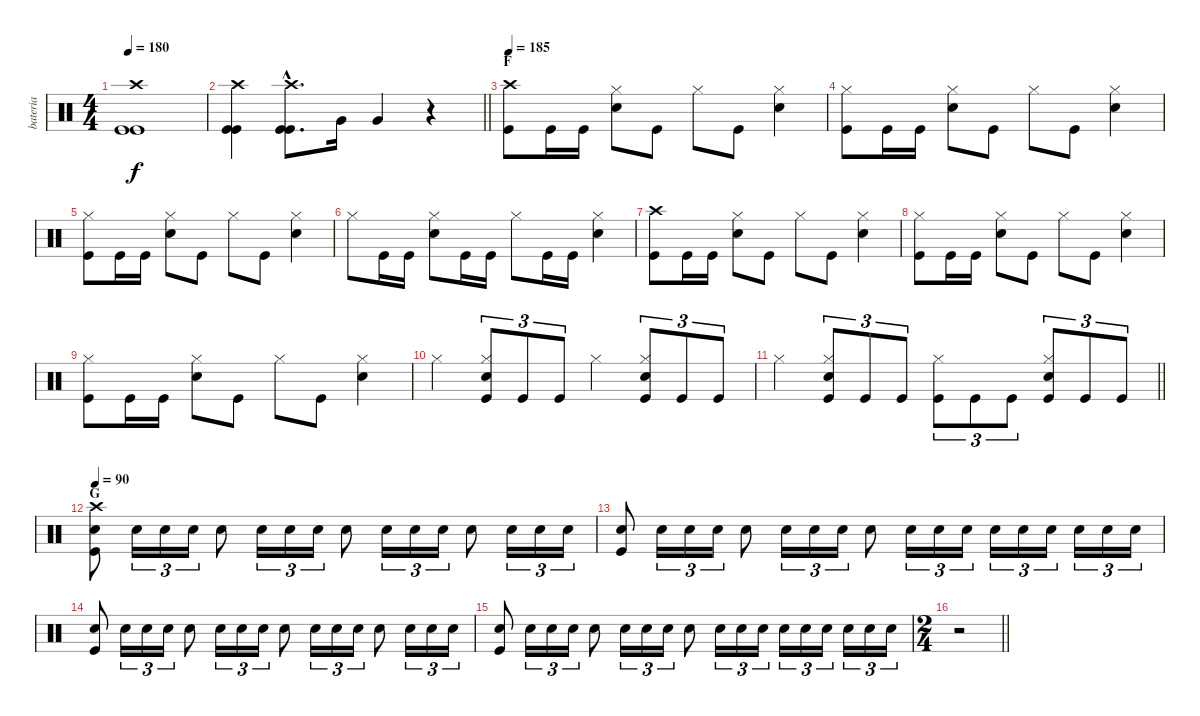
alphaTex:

\track ("bateria" "bateria") {instrument percussion}
\staff {score}
\articulation defaults
\ts (4 4)
\tempo 180
\clef neutral
\ks c
("Crash high (hit)" "Kick (hit)" "Kick (hit)").1{dy f} |
\barLineRight lightlight
("Crash high (hit)" "Kick (hit)" "Kick (hit)").4 ("Crash high (hit)"{hac} "Kick (hit)"{hac} "Kick (hit)"{hac}).8{d} "Very Low Tom (hit)".16 "Very Low Tom (hit)".4 r.4 |
\section ("" "F")
\tempo 185
("Crash high (hit)" "Kick (hit)").8 "Kick (hit)".16 "Kick (hit)".16 ("Hi-Hat (closed)" "Snare (hit) 2").8 "Kick (hit)".8 "Hi-Hat (closed)".8 "Kick (hit)".8 ("Hi-Hat (closed)" "Snare (hit) 2").4 |
("Hi-Hat (closed)" "Kick (hit)").8 "Kick (hit)".16 "Kick (hit)".16 ("Hi-Hat (closed)" "Snare (hit) 2").8 "Kick (hit)".8 "Hi-Hat (closed)".8 "Kick (hit)".8 ("Hi-Hat (closed)" "Snare (hit) 2").4 |
("Hi-Hat (closed)" "Kick (hit)").8 "Kick (hit)".16 "Kick (hit)".16 ("Hi-Hat (closed)" "Snare (hit) 2").8 "Kick (hit)".8 "Hi-Hat (closed)".8 "Kick (hit)".8 ("Hi-Hat (closed)" "Snare (hit) 2").4 |
"Hi-Hat (closed)".8 "Kick (hit)".16 "Kick (hit)".16 ("Hi-Hat (closed)" "Snare (hit) 2").8 "Kick (hit)".16 "Kick (hit)".16 "Hi-Hat (closed)".8 "Kick (hit)".16 "Kick (hit)".16 ("Hi-Hat (closed)" "Snare (hit) 2").4 |
("Crash high (hit)" "Kick (hit)").8 "Kick (hit)".16 "Kick (hit)".16 ("Hi-Hat (closed)" "Snare (hit) 2").8 "Kick (hit)".8 "Hi-Hat (closed)".8 "Kick (hit)".8 ("Hi-Hat (closed)" "Snare (hit) 2").4 |
("Hi-Hat (closed)" "Kick (hit)").8 "Kick (hit)".16 "Kick (hit)".16 ("Hi-Hat (closed)" "Snare (hit) 2").8 "Kick (hit)".8 "Hi-Hat (closed)".8 "Kick (hit)".8 ("Hi-Hat (closed)" "Snare (hit) 2").4 |
("Hi-Hat (closed)" "Kick (hit)").8 "Kick (hit)".16 "Kick (hit)".16 ("Hi-Hat (closed)" "Snare (hit) 2").8 "Kick (hit)".8 "Hi-Hat (closed)".8 "Kick (hit)".8 ("Hi-Hat (closed)" "Snare (hit) 2").4 |
"Hi-Hat (closed)".4 ("Hi-Hat (closed)" "Snare (hit) 2" "Kick (hit)").8{tu (3 2)} "Kick (hit)".8{tu (3 2)} "Kick (hit)".8{tu (3 2)} "Hi-Hat (closed)".4 ("Hi-Hat (closed)" "Snare (hit) 2" "Kick (hit)").8{tu (3 2)} "Kick (hit)".8{tu (3 2)} "Kick (hit)".8{tu (3 2)} |
\barLineRight lightlight "Hi-Hat (closed)".4
("Hi-Hat (closed)" "Snare (hit) 2" "Kick (hit)").8{tu (3 2)} "Kick (hit)".8{tu (3 2)} "Kick (hit)".8{tu (3 2)} ("Hi-Hat (closed)" "Kick (hit)").8{tu (3 2)} "Kick (hit)".8{tu (3 2)} "Kick (hit)".8{tu (3 2)} ("Hi-Hat (closed)" "Snare (hit) 2" "Kick (hit)").8{tu (3 2)} "Kick (hit)".8{tu (3 2)} "Kick (hit)".8{tu (3 2)} |
\section ("" "G")
\tempo 90
("Crash high (hit)" "Snare (hit) 2" "Kick (hit)").8 "Snare (hit) 2".16{tu (3 2)} "Snare (hit) 2".16{tu (3 2)} "Snare (hit) 2".16{tu (3 2)} "Snare (hit) 2".8 "Snare (hit) 2".16{tu (3 2)} "Snare (hit) 2".16{tu (3 2)} "Snare (hit) 2".16{tu (3 2)} "Snare (hit) 2".8 "Snare (hit) 2".16{tu (3 2)} "Snare (hit) 2".16{tu (3 2)} "Snare (hit) 2".16{tu (3 2)} "Snare (hit) 2".8 "Snare (hit) 2".16{tu (3 2)} "Snare (hit) 2".16{tu (3 2)} "Snare (hit) 2".16{tu (3 2)} |
("Snare (hit) 2" "Kick (hit)").8 "Snare (hit) 2".16{tu (3 2)} "Snare (hit) 2".16{tu (3 2)} "Snare (hit) 2".16{tu (3 2)} "Snare (hit) 2".8 "Snare (hit) 2".16{tu (3 2)} "Snare (hit) 2".16{tu (3 2)} "Snare (hit) 2".16{tu (3 2)} "Snare (hit) 2".8 "Snare (hit) 2".16{tu (3 2)} "Snare (hit) 2".16{tu (3 2)} "Snare (hit) 2".16{tu (3 2)} "Snare (hit) 2".16{tu (3 2)} "Snare (hit) 2".16{tu (3 2)} "Snare (hit) 2".16{tu (3 2)} "Snare (hit) 2".16{tu (3 2)} "Snare (hit) 2".16{tu (3 2)} "Snare (hit) 2".16{tu (3 2)} |
("Snare (hit) 2" "Kick (hit)").8 "Snare (hit) 2".16{tu (3 2)} "Snare (hit) 2".16{tu (3 2)} "Snare (hit) 2".16{tu (3 2)} "Snare (hit) 2".8 "Snare (hit) 2".16{tu (3 2)} "Snare (hit) 2".16{tu (3 2)} "Snare (hit) 2".16{tu (3 2)} "Snare (hit) 2".8 "Snare (hit) 2".16{tu (3 2)} "Snare (hit) 2".16{tu (3 2)} "Snare (hit) 2".16{tu (3 2)} "Snare (hit) 2".8 "Snare (hit) 2".16{tu (3 2)} "Snare (hit) 2".16{tu (3 2)} "Snare (hit) 2".16{tu (3 2)} |
("Snare (hit) 2" "Kick (hit)").8 "Snare (hit) 2".16{tu (3 2)} "Snare (hit) 2".16{tu (3 2)} "Snare (hit) 2".16{tu (3 2)} "Snare (hit) 2".8 "Snare (hit) 2".16{tu (3 2)} "Snare (hit) 2".16{tu (3 2)} "Snare (hit) 2".16{tu (3 2)} "Snare (hit) 2".8 "Snare (hit) 2".16{tu (3 2)} "Snare (hit) 2".16{tu (3 2)} "Snare (hit) 2".16{tu (3 2)} "Snare (hit) 2".16{tu (3 2)} "Snare (hit) 2".16{tu (3 2)} "Snare (hit) 2".16{tu (3 2)} "Snare (hit) 2".16{tu (3 2)} "Snare (hit) 2".16{tu (3 2)} "Snare (hit) 2".16{tu (3 2)} |
\ts (2 4)
\barLineRight lightlight
r.2
